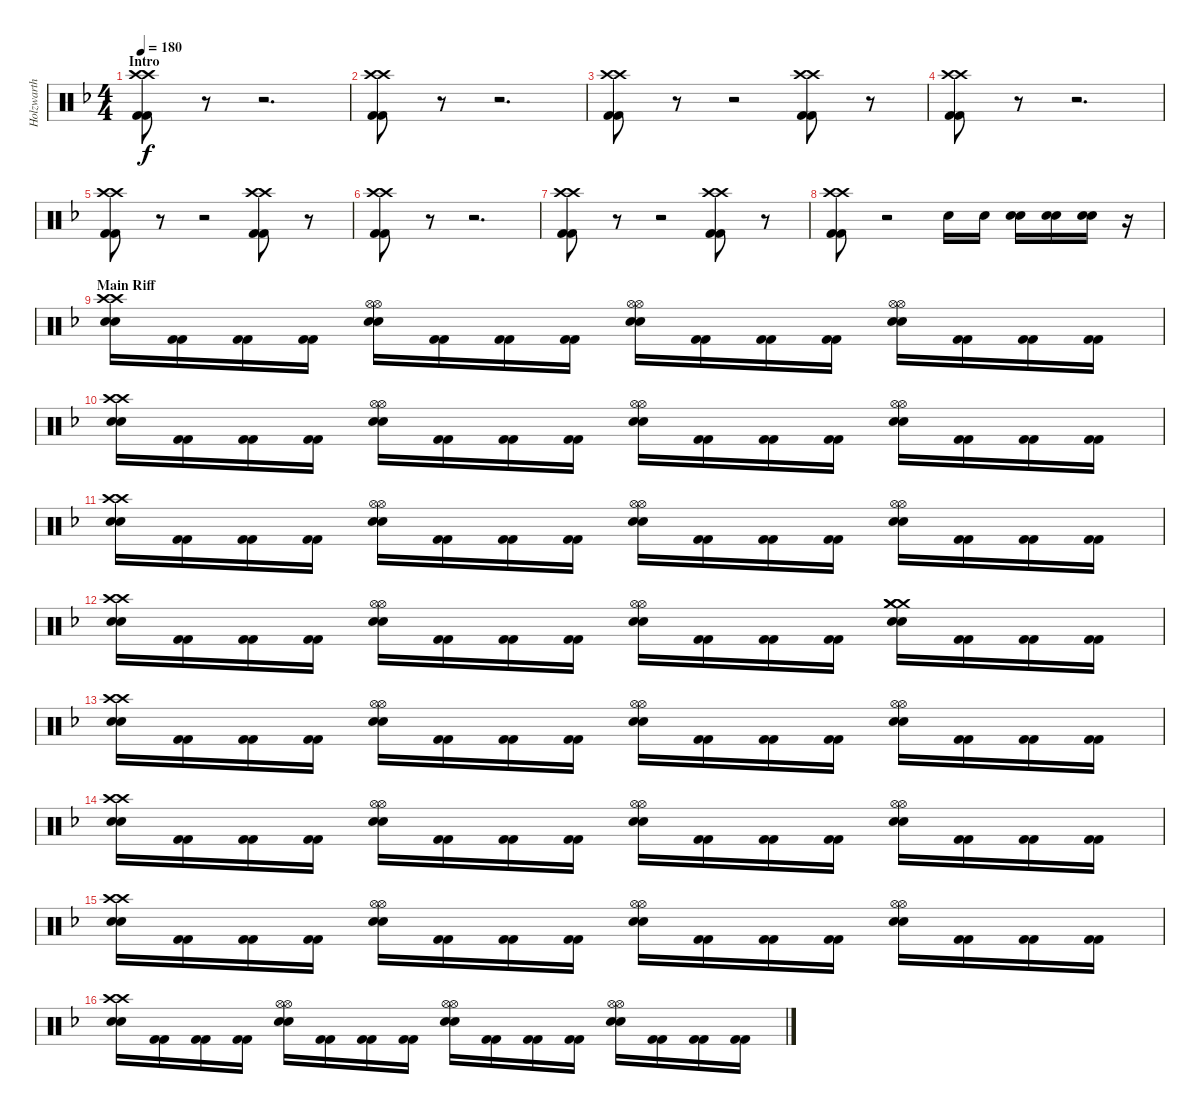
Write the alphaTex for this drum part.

\track ("Holzwarth" "Holzwarth") {instrument percussion}
\staff {score}
\articulation defaults
\ts (4 4)
\section ("" "Intro")
\tempo 180
\clef neutral
\ks dminor
("Kick (hit) 2" "Kick (hit) 2" "Crash high (hit)" "Crash high (hit)").8{dy f} r.8 r.2{d} |
("Kick (hit) 2" "Kick (hit) 2" "Crash high (hit)" "Crash high (hit)").8 r.8 r.2{d} |
("Kick (hit) 2" "Kick (hit) 2" "Crash high (hit)" "Crash high (hit)").8 r.8 r.2 ("Kick (hit) 2" "Kick (hit) 2" "Crash high (hit)" "Crash high (hit)").8 r.8 |
("Kick (hit) 2" "Kick (hit) 2" "Crash high (hit)" "Crash high (hit)").8 r.8 r.2{d} |
("Kick (hit) 2" "Kick (hit) 2" "Crash high (hit)" "Crash high (hit)").8 r.8 r.2 ("Kick (hit) 2" "Kick (hit) 2" "Crash high (hit)" "Crash high (hit)").8 r.8 |
("Kick (hit) 2" "Kick (hit) 2" "Crash high (hit)" "Crash high (hit)").8 r.8 r.2{d} |
("Kick (hit) 2" "Kick (hit) 2" "Crash high (hit)" "Crash high (hit)").8 r.8 r.2 ("Kick (hit) 2" "Kick (hit) 2" "Crash high (hit)" "Crash high (hit)").8 r.8 |
("Kick (hit) 2" "Kick (hit) 2" "Crash high (hit)" "Crash high (hit)").8 r.2 "Snare (hit) 2".16 "Snare (hit) 2".16 ("Snare (hit) 2" "Snare (hit) 2").16 ("Snare (hit) 2" "Snare (hit) 2").16 ("Snare (hit) 2" "Snare (hit) 2").16 r.16 |
\section ("" "Main Riff")
("Snare (hit) 2" "Snare (hit) 2" "Crash high (hit)" "Crash high (hit)").16 ("Kick (hit) 2" "Kick (hit) 2").16 ("Kick (hit) 2" "Kick (hit) 2").16 ("Kick (hit) 2" "Kick (hit) 2").16 ("Snare (hit) 2" "Snare (hit) 2" "Hi-Hat (open)" "Hi-Hat (open)").16 ("Kick (hit) 2" "Kick (hit) 2").16 ("Kick (hit) 2" "Kick (hit) 2").16 ("Kick (hit) 2" "Kick (hit) 2").16 ("Snare (hit) 2" "Snare (hit) 2" "Hi-Hat (open)" "Hi-Hat (open)").16 ("Kick (hit) 2" "Kick (hit) 2").16 ("Kick (hit) 2" "Kick (hit) 2").16 ("Kick (hit) 2" "Kick (hit) 2").16 ("Snare (hit) 2" "Snare (hit) 2" "Hi-Hat (open)" "Hi-Hat (open)").16 ("Kick (hit) 2" "Kick (hit) 2").16 ("Kick (hit) 2" "Kick (hit) 2").16 ("Kick (hit) 2" "Kick (hit) 2").16 |
("Snare (hit) 2" "Snare (hit) 2" "Crash high (hit)" "Crash high (hit)").16 ("Kick (hit) 2" "Kick (hit) 2").16 ("Kick (hit) 2" "Kick (hit) 2").16 ("Kick (hit) 2" "Kick (hit) 2").16 ("Snare (hit) 2" "Snare (hit) 2" "Hi-Hat (open)" "Hi-Hat (open)").16 ("Kick (hit) 2" "Kick (hit) 2").16 ("Kick (hit) 2" "Kick (hit) 2").16 ("Kick (hit) 2" "Kick (hit) 2").16 ("Snare (hit) 2" "Snare (hit) 2" "Hi-Hat (open)" "Hi-Hat (open)").16 ("Kick (hit) 2" "Kick (hit) 2").16 ("Kick (hit) 2" "Kick (hit) 2").16 ("Kick (hit) 2" "Kick (hit) 2").16 ("Snare (hit) 2" "Snare (hit) 2" "Hi-Hat (open)" "Hi-Hat (open)").16 ("Kick (hit) 2" "Kick (hit) 2").16 ("Kick (hit) 2" "Kick (hit) 2").16 ("Kick (hit) 2" "Kick (hit) 2").16 |
("Snare (hit) 2" "Snare (hit) 2" "Crash high (hit)" "Crash high (hit)").16 ("Kick (hit) 2" "Kick (hit) 2").16 ("Kick (hit) 2" "Kick (hit) 2").16 ("Kick (hit) 2" "Kick (hit) 2").16 ("Snare (hit) 2" "Snare (hit) 2" "Hi-Hat (open)" "Hi-Hat (open)").16 ("Kick (hit) 2" "Kick (hit) 2").16 ("Kick (hit) 2" "Kick (hit) 2").16 ("Kick (hit) 2" "Kick (hit) 2").16 ("Snare (hit) 2" "Snare (hit) 2" "Hi-Hat (open)" "Hi-Hat (open)").16 ("Kick (hit) 2" "Kick (hit) 2").16 ("Kick (hit) 2" "Kick (hit) 2").16 ("Kick (hit) 2" "Kick (hit) 2").16 ("Snare (hit) 2" "Snare (hit) 2" "Hi-Hat (open)" "Hi-Hat (open)").16 ("Kick (hit) 2" "Kick (hit) 2").16 ("Kick (hit) 2" "Kick (hit) 2").16 ("Kick (hit) 2" "Kick (hit) 2").16 |
("Snare (hit) 2" "Snare (hit) 2" "Crash high (hit)" "Crash high (hit)").16 ("Kick (hit) 2" "Kick (hit) 2").16 ("Kick (hit) 2" "Kick (hit) 2").16 ("Kick (hit) 2" "Kick (hit) 2").16 ("Snare (hit) 2" "Snare (hit) 2" "Hi-Hat (open)" "Hi-Hat (open)").16 ("Kick (hit) 2" "Kick (hit) 2").16 ("Kick (hit) 2" "Kick (hit) 2").16 ("Kick (hit) 2" "Kick (hit) 2").16 ("Snare (hit) 2" "Snare (hit) 2" "Hi-Hat (open)" "Hi-Hat (open)").16 ("Kick (hit) 2" "Kick (hit) 2").16 ("Kick (hit) 2" "Kick (hit) 2").16 ("Kick (hit) 2" "Kick (hit) 2").16 ("Snare (hit) 2" "Snare (hit) 2" "Crash medium (hit)" "Crash medium (hit)" "Crash medium (hit)").16 ("Kick (hit) 2" "Kick (hit) 2").16 ("Kick (hit) 2" "Kick (hit) 2").16 ("Kick (hit) 2" "Kick (hit) 2").16 |
("Snare (hit) 2" "Snare (hit) 2" "Crash high (hit)" "Crash high (hit)").16 ("Kick (hit) 2" "Kick (hit) 2").16 ("Kick (hit) 2" "Kick (hit) 2").16 ("Kick (hit) 2" "Kick (hit) 2").16 ("Snare (hit) 2" "Snare (hit) 2" "Hi-Hat (open)" "Hi-Hat (open)").16 ("Kick (hit) 2" "Kick (hit) 2").16 ("Kick (hit) 2" "Kick (hit) 2").16 ("Kick (hit) 2" "Kick (hit) 2").16 ("Snare (hit) 2" "Snare (hit) 2" "Hi-Hat (open)" "Hi-Hat (open)").16 ("Kick (hit) 2" "Kick (hit) 2").16 ("Kick (hit) 2" "Kick (hit) 2").16 ("Kick (hit) 2" "Kick (hit) 2").16 ("Snare (hit) 2" "Snare (hit) 2" "Hi-Hat (open)" "Hi-Hat (open)").16 ("Kick (hit) 2" "Kick (hit) 2").16 ("Kick (hit) 2" "Kick (hit) 2").16 ("Kick (hit) 2" "Kick (hit) 2").16 |
("Snare (hit) 2" "Snare (hit) 2" "Crash high (hit)" "Crash high (hit)").16 ("Kick (hit) 2" "Kick (hit) 2").16 ("Kick (hit) 2" "Kick (hit) 2").16 ("Kick (hit) 2" "Kick (hit) 2").16 ("Snare (hit) 2" "Snare (hit) 2" "Hi-Hat (open)" "Hi-Hat (open)").16 ("Kick (hit) 2" "Kick (hit) 2").16 ("Kick (hit) 2" "Kick (hit) 2").16 ("Kick (hit) 2" "Kick (hit) 2").16 ("Snare (hit) 2" "Snare (hit) 2" "Hi-Hat (open)" "Hi-Hat (open)").16 ("Kick (hit) 2" "Kick (hit) 2").16 ("Kick (hit) 2" "Kick (hit) 2").16 ("Kick (hit) 2" "Kick (hit) 2").16 ("Snare (hit) 2" "Snare (hit) 2" "Hi-Hat (open)" "Hi-Hat (open)").16 ("Kick (hit) 2" "Kick (hit) 2").16 ("Kick (hit) 2" "Kick (hit) 2").16 ("Kick (hit) 2" "Kick (hit) 2").16 |
("Snare (hit) 2" "Snare (hit) 2" "Crash high (hit)" "Crash high (hit)").16 ("Kick (hit) 2" "Kick (hit) 2").16 ("Kick (hit) 2" "Kick (hit) 2").16 ("Kick (hit) 2" "Kick (hit) 2").16 ("Snare (hit) 2" "Snare (hit) 2" "Hi-Hat (open)" "Hi-Hat (open)").16 ("Kick (hit) 2" "Kick (hit) 2").16 ("Kick (hit) 2" "Kick (hit) 2").16 ("Kick (hit) 2" "Kick (hit) 2").16 ("Snare (hit) 2" "Snare (hit) 2" "Hi-Hat (open)" "Hi-Hat (open)").16 ("Kick (hit) 2" "Kick (hit) 2").16 ("Kick (hit) 2" "Kick (hit) 2").16 ("Kick (hit) 2" "Kick (hit) 2").16 ("Snare (hit) 2" "Snare (hit) 2" "Hi-Hat (open)" "Hi-Hat (open)").16 ("Kick (hit) 2" "Kick (hit) 2").16 ("Kick (hit) 2" "Kick (hit) 2").16 ("Kick (hit) 2" "Kick (hit) 2").16 |
("Snare (hit) 2" "Snare (hit) 2" "Crash high (hit)" "Crash high (hit)").16 ("Kick (hit) 2" "Kick (hit) 2").16 ("Kick (hit) 2" "Kick (hit) 2").16 ("Kick (hit) 2" "Kick (hit) 2").16 ("Snare (hit) 2" "Snare (hit) 2" "Hi-Hat (open)" "Hi-Hat (open)").16 ("Kick (hit) 2" "Kick (hit) 2").16 ("Kick (hit) 2" "Kick (hit) 2").16 ("Kick (hit) 2" "Kick (hit) 2").16 ("Snare (hit) 2" "Snare (hit) 2" "Hi-Hat (open)" "Hi-Hat (open)").16 ("Kick (hit) 2" "Kick (hit) 2").16 ("Kick (hit) 2" "Kick (hit) 2").16 ("Kick (hit) 2" "Kick (hit) 2").16 ("Snare (hit) 2" "Snare (hit) 2" "Hi-Hat (open)" "Hi-Hat (open)").16 ("Kick (hit) 2" "Kick (hit) 2").16 ("Kick (hit) 2" "Kick (hit) 2").16 ("Kick (hit) 2" "Kick (hit) 2").16
